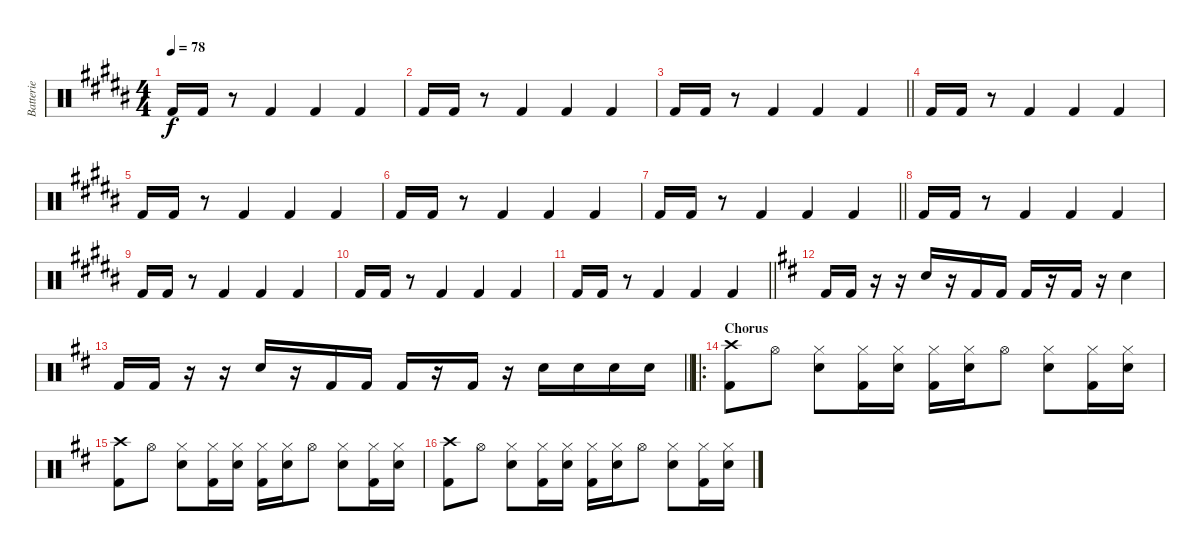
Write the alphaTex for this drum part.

\track ("Batterie" "Batterie") {instrument percussion}
\staff {score}
\articulation defaults
\ts (4 4)
\tempo 78
\clef neutral
\ks b "Kick (hit) 2".16{dy f} "Kick (hit) 2".16
r.8 "Kick (hit) 2".4 "Kick (hit) 2".4 "Kick (hit) 2".4 |
"Kick (hit) 2".16 "Kick (hit) 2".16 r.8 "Kick (hit) 2".4 "Kick (hit) 2".4 "Kick (hit) 2".4 |
\barLineRight lightlight "Kick (hit) 2".16 "Kick (hit) 2".16
r.8 "Kick (hit) 2".4 "Kick (hit) 2".4 "Kick (hit) 2".4 |
"Kick (hit) 2".16 "Kick (hit) 2".16 r.8 "Kick (hit) 2".4 "Kick (hit) 2".4 "Kick (hit) 2".4 |
"Kick (hit) 2".16 "Kick (hit) 2".16 r.8 "Kick (hit) 2".4 "Kick (hit) 2".4 "Kick (hit) 2".4 |
"Kick (hit) 2".16 "Kick (hit) 2".16 r.8 "Kick (hit) 2".4 "Kick (hit) 2".4 "Kick (hit) 2".4 |
\barLineRight lightlight "Kick (hit) 2".16 "Kick (hit) 2".16
r.8 "Kick (hit) 2".4 "Kick (hit) 2".4 "Kick (hit) 2".4 |
"Kick (hit) 2".16 "Kick (hit) 2".16 r.8 "Kick (hit) 2".4 "Kick (hit) 2".4 "Kick (hit) 2".4 |
"Kick (hit) 2".16 "Kick (hit) 2".16 r.8 "Kick (hit) 2".4 "Kick (hit) 2".4 "Kick (hit) 2".4 |
"Kick (hit) 2".16 "Kick (hit) 2".16 r.8 "Kick (hit) 2".4 "Kick (hit) 2".4 "Kick (hit) 2".4 |
\barLineRight lightlight "Kick (hit) 2".16 "Kick (hit) 2".16
r.8 "Kick (hit) 2".4 "Kick (hit) 2".4 "Kick (hit) 2".4 |
\ks d "Kick (hit) 2".16 "Kick (hit) 2".16
r.16 r.16 "Snare (hit) 2".16 r.16 "Kick (hit) 2".16 "Kick (hit) 2".16 "Kick (hit) 2".16 r.16 "Kick (hit) 2".16 r.16 "Snare (hit) 2".4 |
\barLineRight lightlight "Kick (hit) 2".16 "Kick (hit) 2".16
r.16 r.16 "Snare (hit) 2".16 r.16 "Kick (hit) 2".16 "Kick (hit) 2".16 "Kick (hit) 2".16 r.16 "Kick (hit) 2".16 r.16 "Snare (hit) 2".16 "Snare (hit) 2".16 "Snare (hit) 2".16 "Snare (hit) 2".16 |
\ro
\section ("" "Chorus")
("Crash high (hit)" "Kick (hit) 2").8 "Hi-Hat (open)".8 ("Hi-Hat (closed)" "Snare (hit) 2").8 ("Hi-Hat (closed)" "Kick (hit) 2").16 ("Hi-Hat (closed)" "Snare (hit) 2").16 ("Hi-Hat (closed)" "Kick (hit) 2").16 ("Hi-Hat (closed)" "Snare (hit) 2").16 "Hi-Hat (open)".8 ("Hi-Hat (closed)" "Snare (hit) 2").8 ("Hi-Hat (closed)" "Kick (hit) 2").16 ("Hi-Hat (closed)" "Snare (hit) 2").16 |
("Crash high (hit)" "Kick (hit) 2").8 "Hi-Hat (open)".8 ("Hi-Hat (closed)" "Snare (hit) 2").8 ("Hi-Hat (closed)" "Kick (hit) 2").16 ("Hi-Hat (closed)" "Snare (hit) 2").16 ("Hi-Hat (closed)" "Kick (hit) 2").16 ("Hi-Hat (closed)" "Snare (hit) 2").16 "Hi-Hat (open)".8 ("Hi-Hat (closed)" "Snare (hit) 2").8 ("Hi-Hat (closed)" "Kick (hit) 2").16 ("Hi-Hat (closed)" "Snare (hit) 2").16 |
("Crash high (hit)" "Kick (hit) 2").8 "Hi-Hat (open)".8 ("Hi-Hat (closed)" "Snare (hit) 2").8 ("Hi-Hat (closed)" "Kick (hit) 2").16 ("Hi-Hat (closed)" "Snare (hit) 2").16 ("Hi-Hat (closed)" "Kick (hit) 2").16 ("Hi-Hat (closed)" "Snare (hit) 2").16 "Hi-Hat (open)".8 ("Hi-Hat (closed)" "Snare (hit) 2").8 ("Hi-Hat (closed)" "Kick (hit) 2").16 ("Hi-Hat (closed)" "Snare (hit) 2").16
